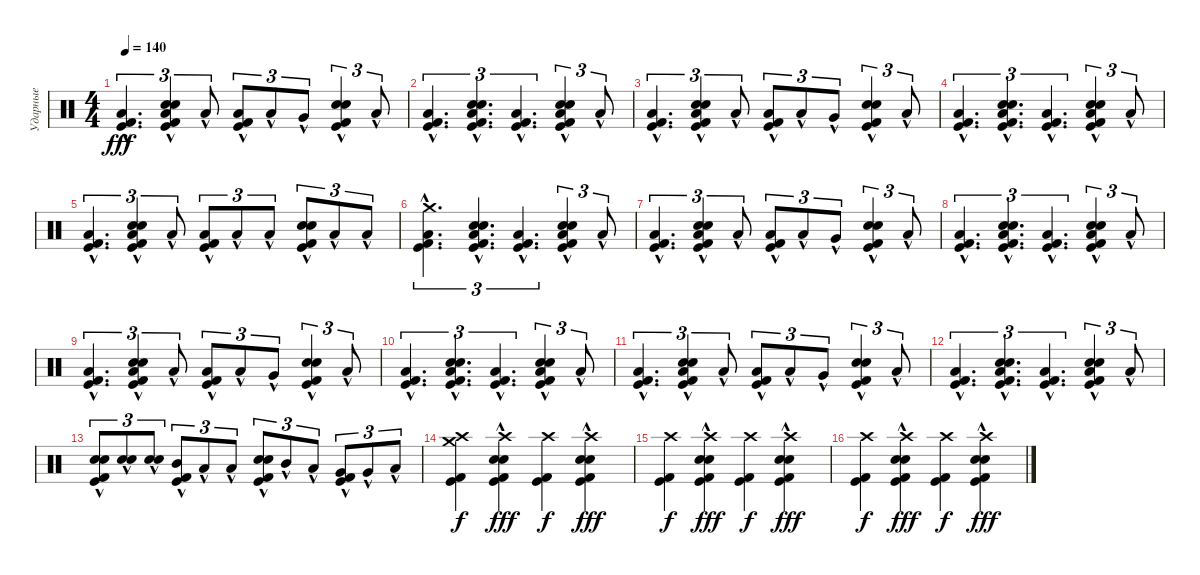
\track ("Ударные" "Ударные") {instrument percussion}
\staff {score}
\articulation defaults
\ts (4 4)
\tempo 140
\clef neutral
\ks c
("Kick (hit)" "Kick (hit) 2" "Low Floor Tom (hit)"{hac}).4{d tu (3 2) dy fff} ("Kick (hit)" "Kick (hit) 2" "Snare (hit) 2"{hac} "Electric Snare (hit)"{hac} "Low Floor Tom (hit)"{hac}).4{tu (3 2)} "Low Floor Tom (hit)"{hac}.8{tu (3 2)} ("Kick (hit)" "Kick (hit) 2" "Low Floor Tom (hit)"{hac}).8{tu (3 2)} "Low Tom (hit)"{hac}.8{tu (3 2)} "Very Low Tom (hit)"{hac}.8{tu (3 2)} ("Kick (hit)" "Kick (hit) 2" "Snare (hit) 2"{hac} "Electric Snare (hit)"{hac}).4{tu (3 2)} "Low Floor Tom (hit)"{hac}.8{tu (3 2)} |
("Kick (hit)" "Kick (hit) 2" "Low Floor Tom (hit)"{hac}).4{d tu (3 2)} ("Kick (hit)" "Kick (hit) 2" "Snare (hit) 2"{hac} "Electric Snare (hit)"{hac} "Low Floor Tom (hit)"{hac}).4{d tu (3 2)} ("Kick (hit)" "Kick (hit) 2" "Low Floor Tom (hit)"{hac}).4{d tu (3 2)} ("Kick (hit)" "Kick (hit) 2" "Snare (hit) 2"{hac} "Electric Snare (hit)"{hac} "Low Floor Tom (hit)"{hac}).4{tu (3 2)} "Low Floor Tom (hit)"{hac}.8{tu (3 2)} |
("Kick (hit)" "Kick (hit) 2" "Low Floor Tom (hit)"{hac}).4{d tu (3 2)} ("Kick (hit)" "Kick (hit) 2" "Snare (hit) 2"{hac} "Electric Snare (hit)"{hac} "Low Floor Tom (hit)"{hac}).4{tu (3 2)} "Low Floor Tom (hit)"{hac}.8{tu (3 2)} ("Kick (hit)" "Kick (hit) 2" "Low Floor Tom (hit)"{hac}).8{tu (3 2)} "Low Tom (hit)"{hac}.8{tu (3 2)} "Very Low Tom (hit)"{hac}.8{tu (3 2)} ("Kick (hit)" "Kick (hit) 2" "Snare (hit) 2"{hac} "Electric Snare (hit)"{hac}).4{tu (3 2)} "Low Floor Tom (hit)"{hac}.8{tu (3 2)} |
("Kick (hit)" "Kick (hit) 2" "Low Floor Tom (hit)"{hac}).4{d tu (3 2)} ("Kick (hit)" "Kick (hit) 2" "Snare (hit) 2"{hac} "Electric Snare (hit)"{hac} "Low Floor Tom (hit)"{hac}).4{d tu (3 2)} ("Kick (hit)" "Kick (hit) 2" "Low Floor Tom (hit)"{hac}).4{d tu (3 2)} ("Kick (hit)" "Kick (hit) 2" "Snare (hit) 2"{hac} "Electric Snare (hit)"{hac} "Low Floor Tom (hit)"{hac}).4{tu (3 2)} "Low Floor Tom (hit)"{hac}.8{tu (3 2)} |
("Kick (hit)" "Kick (hit) 2" "Low Floor Tom (hit)"{hac}).4{d tu (3 2)} ("Kick (hit)" "Kick (hit) 2" "Snare (hit) 2"{hac} "Electric Snare (hit)"{hac} "Low Floor Tom (hit)"{hac}).4{tu (3 2)} "Low Floor Tom (hit)"{hac}.8{tu (3 2)} ("Kick (hit)" "Kick (hit) 2" "Low Floor Tom (hit)"{hac}).8{tu (3 2)} "Low Floor Tom (hit)"{hac}.8{tu (3 2)} "Low Floor Tom (hit)"{hac}.8{tu (3 2)} ("Kick (hit)" "Kick (hit) 2" "Snare (hit) 2"{hac} "Electric Snare (hit)"{hac}).8{tu (3 2)} "Low Floor Tom (hit)"{hac}.8{tu (3 2)} "Low Floor Tom (hit)"{hac}.8{tu (3 2)} |
("Crash medium (hit)" "Kick (hit)" "Kick (hit) 2" "Low Floor Tom (hit)"{hac}).4{d tu (3 2)} ("Kick (hit)" "Kick (hit) 2" "Snare (hit) 2"{hac} "Electric Snare (hit)"{hac} "Low Floor Tom (hit)"{hac}).4{d tu (3 2)} ("Kick (hit)" "Kick (hit) 2" "Low Floor Tom (hit)"{hac}).4{d tu (3 2)} ("Kick (hit)" "Kick (hit) 2" "Snare (hit) 2"{hac} "Electric Snare (hit)"{hac} "Low Floor Tom (hit)"{hac}).4{tu (3 2)} "Low Floor Tom (hit)"{hac}.8{tu (3 2)} |
("Kick (hit)" "Kick (hit) 2" "Low Floor Tom (hit)"{hac}).4{d tu (3 2)} ("Kick (hit)" "Kick (hit) 2" "Snare (hit) 2"{hac} "Electric Snare (hit)"{hac} "Low Floor Tom (hit)"{hac}).4{tu (3 2)} "Low Floor Tom (hit)"{hac}.8{tu (3 2)} ("Kick (hit)" "Kick (hit) 2" "Low Floor Tom (hit)"{hac}).8{tu (3 2)} "Low Tom (hit)"{hac}.8{tu (3 2)} "Very Low Tom (hit)"{hac}.8{tu (3 2)} ("Kick (hit)" "Kick (hit) 2" "Snare (hit) 2"{hac} "Electric Snare (hit)"{hac}).4{tu (3 2)} "Low Floor Tom (hit)"{hac}.8{tu (3 2)} |
("Kick (hit)" "Kick (hit) 2" "Low Floor Tom (hit)"{hac}).4{d tu (3 2)} ("Kick (hit)" "Kick (hit) 2" "Snare (hit) 2"{hac} "Electric Snare (hit)"{hac} "Low Floor Tom (hit)"{hac}).4{d tu (3 2)} ("Kick (hit)" "Kick (hit) 2" "Low Floor Tom (hit)"{hac}).4{d tu (3 2)} ("Kick (hit)" "Kick (hit) 2" "Snare (hit) 2"{hac} "Electric Snare (hit)"{hac} "Low Floor Tom (hit)"{hac}).4{tu (3 2)} "Low Floor Tom (hit)"{hac}.8{tu (3 2)} |
("Kick (hit)" "Kick (hit) 2" "Low Floor Tom (hit)"{hac}).4{d tu (3 2)} ("Kick (hit)" "Kick (hit) 2" "Snare (hit) 2"{hac} "Electric Snare (hit)"{hac} "Low Floor Tom (hit)"{hac}).4{tu (3 2)} "Low Floor Tom (hit)"{hac}.8{tu (3 2)} ("Kick (hit)" "Kick (hit) 2" "Low Floor Tom (hit)"{hac}).8{tu (3 2)} "Low Tom (hit)"{hac}.8{tu (3 2)} "Very Low Tom (hit)"{hac}.8{tu (3 2)} ("Kick (hit)" "Kick (hit) 2" "Snare (hit) 2"{hac} "Electric Snare (hit)"{hac}).4{tu (3 2)} "Low Floor Tom (hit)"{hac}.8{tu (3 2)} |
("Kick (hit)" "Kick (hit) 2" "Low Floor Tom (hit)"{hac}).4{d tu (3 2)} ("Kick (hit)" "Kick (hit) 2" "Snare (hit) 2"{hac} "Electric Snare (hit)"{hac} "Low Floor Tom (hit)"{hac}).4{d tu (3 2)} ("Kick (hit)" "Kick (hit) 2" "Low Floor Tom (hit)"{hac}).4{d tu (3 2)} ("Kick (hit)" "Kick (hit) 2" "Snare (hit) 2"{hac} "Electric Snare (hit)"{hac} "Low Floor Tom (hit)"{hac}).4{tu (3 2)} "Low Floor Tom (hit)"{hac}.8{tu (3 2)} |
("Kick (hit)" "Kick (hit) 2" "Low Floor Tom (hit)"{hac}).4{d tu (3 2)} ("Kick (hit)" "Kick (hit) 2" "Snare (hit) 2"{hac} "Electric Snare (hit)"{hac} "Low Floor Tom (hit)"{hac}).4{tu (3 2)} "Low Floor Tom (hit)"{hac}.8{tu (3 2)} ("Kick (hit)" "Kick (hit) 2" "Low Floor Tom (hit)"{hac}).8{tu (3 2)} "Low Tom (hit)"{hac}.8{tu (3 2)} "Very Low Tom (hit)"{hac}.8{tu (3 2)} ("Kick (hit)" "Kick (hit) 2" "Snare (hit) 2"{hac} "Electric Snare (hit)"{hac}).4{tu (3 2)} "Low Floor Tom (hit)"{hac}.8{tu (3 2)} |
("Kick (hit)" "Kick (hit) 2" "Low Floor Tom (hit)"{hac}).4{d tu (3 2)} ("Kick (hit)" "Kick (hit) 2" "Snare (hit) 2"{hac} "Electric Snare (hit)"{hac} "Low Floor Tom (hit)"{hac}).4{d tu (3 2)} ("Kick (hit)" "Kick (hit) 2" "Low Floor Tom (hit)"{hac}).4{d tu (3 2)} ("Kick (hit)" "Kick (hit) 2" "Snare (hit) 2"{hac} "Electric Snare (hit)"{hac} "Low Floor Tom (hit)"{hac}).4{tu (3 2)} "Low Floor Tom (hit)"{hac}.8{tu (3 2)} |
("Kick (hit)" "Kick (hit) 2" "Snare (hit) 2"{hac} "Electric Snare (hit)"{hac}).8{tu (3 2)} ("Snare (hit) 2"{hac} "Electric Snare (hit)"{hac}).8{tu (3 2)} ("Snare (hit) 2"{hac} "Electric Snare (hit)"{hac}).8{tu (3 2)} ("Kick (hit)" "Kick (hit) 2" "Mid Tom (hit)"{hac}).8{tu (3 2)} "Low Tom (hit)"{hac}.8{tu (3 2)} "Low Floor Tom (hit)"{hac}.8{tu (3 2)} ("Kick (hit)" "Kick (hit) 2" "Snare (hit) 2"{hac} "Electric Snare (hit)"{hac}).8{tu (3 2)} "Mid Tom (hit)"{hac}.8{tu (3 2)} "Low Tom (hit)"{hac}.8{tu (3 2)} ("Kick (hit)" "Kick (hit) 2" "Very Low Tom (hit)"{hac}).8{tu (3 2)} "Very Low Tom (hit)"{hac}.8{tu (3 2)} "Low Floor Tom (hit)"{hac}.8{tu (3 2)} |
("Crash high (hit)" "Kick (hit)" "Kick (hit) 2" "Crash medium (hit)").4{dy f} ("Crash high (hit)" "Kick (hit)" "Kick (hit) 2" "Snare (hit) 2"{hac} "Electric Snare (hit)"{hac}).4{dy fff} ("Crash high (hit)" "Kick (hit)" "Kick (hit) 2").4{dy f} ("Crash high (hit)" "Kick (hit)" "Kick (hit) 2" "Snare (hit) 2"{hac} "Electric Snare (hit)"{hac}).4{dy fff} |
("Crash high (hit)" "Kick (hit)" "Kick (hit) 2").4{dy f} ("Crash high (hit)" "Kick (hit)" "Kick (hit) 2" "Snare (hit) 2"{hac} "Electric Snare (hit)"{hac}).4{dy fff} ("Crash high (hit)" "Kick (hit)" "Kick (hit) 2").4{dy f} ("Crash high (hit)" "Kick (hit)" "Kick (hit) 2" "Snare (hit) 2"{hac} "Electric Snare (hit)"{hac}).4{dy fff} |
("Crash high (hit)" "Kick (hit)" "Kick (hit) 2").4{dy f} ("Crash high (hit)" "Kick (hit)" "Kick (hit) 2" "Snare (hit) 2"{hac} "Electric Snare (hit)"{hac}).4{dy fff} ("Crash high (hit)" "Kick (hit)" "Kick (hit) 2").4{dy f} ("Crash high (hit)" "Kick (hit)" "Kick (hit) 2" "Snare (hit) 2"{hac} "Electric Snare (hit)"{hac}).4{dy fff}
